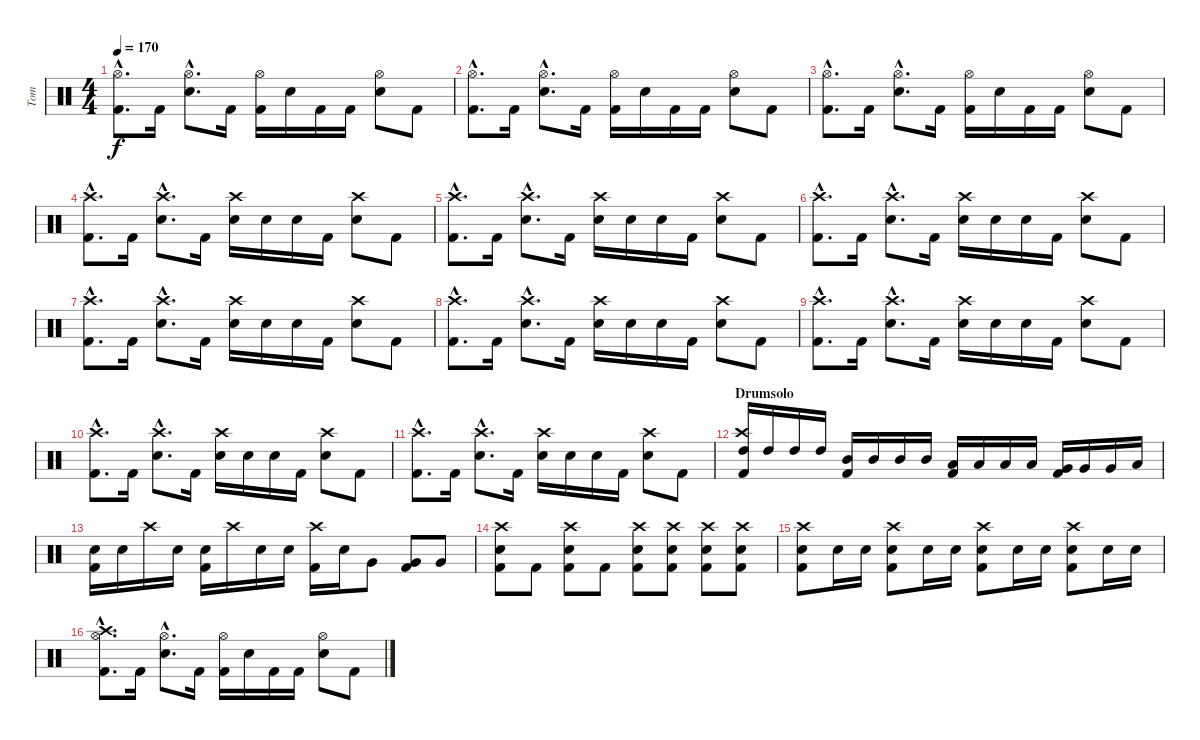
\track ("Tom" "Tom") {instrument percussion}
\staff {score}
\articulation defaults
\ts (4 4)
\tempo 170
\clef neutral
\ks c
("Hi-Hat (open)"{hac} "Kick (hit) 2"{hac}).8{d dy f} "Kick (hit) 2".16 ("Hi-Hat (open)"{hac} "Electric Snare (hit)"{hac}).8{d} "Kick (hit) 2".16 ("Hi-Hat (open)" "Kick (hit) 2").16 "Electric Snare (hit)".16 "Kick (hit) 2".16 "Kick (hit) 2".16 ("Hi-Hat (open)" "Electric Snare (hit)").8 "Kick (hit) 2".8 |
("Hi-Hat (open)"{hac} "Kick (hit) 2"{hac}).8{d} "Kick (hit) 2".16 ("Hi-Hat (open)"{hac} "Electric Snare (hit)"{hac}).8{d} "Kick (hit) 2".16 ("Hi-Hat (open)" "Kick (hit) 2").16 "Electric Snare (hit)".16 "Kick (hit) 2".16 "Kick (hit) 2".16 ("Hi-Hat (open)" "Electric Snare (hit)").8 "Kick (hit) 2".8 |
("Hi-Hat (open)"{hac} "Kick (hit) 2"{hac}).8{d} "Kick (hit) 2".16 ("Hi-Hat (open)"{hac} "Electric Snare (hit)"{hac}).8{d} "Kick (hit) 2".16 ("Hi-Hat (open)" "Kick (hit) 2").16 "Electric Snare (hit)".16 "Kick (hit) 2".16 "Kick (hit) 2".16 ("Hi-Hat (open)" "Electric Snare (hit)").8 "Kick (hit) 2".8 |
("Crash high (hit)"{hac} "Kick (hit) 2"{hac}).8{d} "Kick (hit) 2".16 ("Crash high (hit)"{hac} "Electric Snare (hit)"{hac}).8{d} "Kick (hit) 2".16 ("Crash high (hit)" "Electric Snare (hit)").16 "Electric Snare (hit)".16 "Electric Snare (hit)".16 "Kick (hit) 2".16 ("Crash high (hit)" "Electric Snare (hit)").8 "Kick (hit) 2".8 |
("Crash high (hit)"{hac} "Kick (hit) 2"{hac}).8{d} "Kick (hit) 2".16 ("Crash high (hit)"{hac} "Electric Snare (hit)"{hac}).8{d} "Kick (hit) 2".16 ("Crash high (hit)" "Electric Snare (hit)").16 "Electric Snare (hit)".16 "Electric Snare (hit)".16 "Kick (hit) 2".16 ("Crash high (hit)" "Electric Snare (hit)").8 "Kick (hit) 2".8 |
("Crash high (hit)"{hac} "Kick (hit) 2"{hac}).8{d} "Kick (hit) 2".16 ("Crash high (hit)"{hac} "Electric Snare (hit)"{hac}).8{d} "Kick (hit) 2".16 ("Crash high (hit)" "Electric Snare (hit)").16 "Electric Snare (hit)".16 "Electric Snare (hit)".16 "Kick (hit) 2".16 ("Crash high (hit)" "Electric Snare (hit)").8 "Kick (hit) 2".8 |
("Crash high (hit)"{hac} "Kick (hit) 2"{hac}).8{d} "Kick (hit) 2".16 ("Crash high (hit)"{hac} "Electric Snare (hit)"{hac}).8{d} "Kick (hit) 2".16 ("Crash high (hit)" "Electric Snare (hit)").16 "Electric Snare (hit)".16 "Electric Snare (hit)".16 "Kick (hit) 2".16 ("Crash high (hit)" "Electric Snare (hit)").8 "Kick (hit) 2".8 |
("Crash high (hit)"{hac} "Kick (hit) 2"{hac}).8{d} "Kick (hit) 2".16 ("Crash high (hit)"{hac} "Electric Snare (hit)"{hac}).8{d} "Kick (hit) 2".16 ("Crash high (hit)" "Electric Snare (hit)").16 "Electric Snare (hit)".16 "Electric Snare (hit)".16 "Kick (hit) 2".16 ("Crash high (hit)" "Electric Snare (hit)").8 "Kick (hit) 2".8 |
("Crash high (hit)"{hac} "Kick (hit) 2"{hac}).8{d} "Kick (hit) 2".16 ("Crash high (hit)"{hac} "Electric Snare (hit)"{hac}).8{d} "Kick (hit) 2".16 ("Crash high (hit)" "Electric Snare (hit)").16 "Electric Snare (hit)".16 "Electric Snare (hit)".16 "Kick (hit) 2".16 ("Crash high (hit)" "Electric Snare (hit)").8 "Kick (hit) 2".8 |
("Crash high (hit)"{hac} "Kick (hit) 2"{hac}).8{d} "Kick (hit) 2".16 ("Crash high (hit)"{hac} "Electric Snare (hit)"{hac}).8{d} "Kick (hit) 2".16 ("Crash high (hit)" "Electric Snare (hit)").16 "Electric Snare (hit)".16 "Electric Snare (hit)".16 "Kick (hit) 2".16 ("Crash high (hit)" "Electric Snare (hit)").8 "Kick (hit) 2".8 |
("Crash high (hit)"{hac} "Kick (hit) 2"{hac}).8{d} "Kick (hit) 2".16 ("Crash high (hit)"{hac} "Electric Snare (hit)"{hac}).8{d} "Kick (hit) 2".16 ("Crash high (hit)" "Electric Snare (hit)").16 "Electric Snare (hit)".16 "Electric Snare (hit)".16 "Kick (hit) 2".16 ("Crash high (hit)" "Electric Snare (hit)").8 "Kick (hit) 2".8 |
\section ("" "Drumsolo")
("High Tom (hit)" "Kick (hit) 2" "Crash high (hit)").16 "High Tom (hit)".16 "High Tom (hit)".16 "High Tom (hit)".16 ("Mid Tom (hit)" "Kick (hit) 2").16 "Mid Tom (hit)".16 "Mid Tom (hit)".16 "Mid Tom (hit)".16 ("Low Tom (hit)" "Kick (hit) 2").16 "Low Tom (hit)".16 "Low Tom (hit)".16 "Low Tom (hit)".16 ("Very Low Tom (hit)" "Kick (hit) 2").16 "Very Low Tom (hit)".16 "Very Low Tom (hit)".16 "Low Tom (hit)".16 |
("Snare (hit) 2" "Kick (hit) 2").16 "Snare (hit) 2".16 "Crash high (hit)".16 "Snare (hit) 2".16 ("Snare (hit) 2" "Kick (hit) 2").16 "Crash high (hit)".16 "Snare (hit) 2".16 "Snare (hit) 2".16 ("Crash high (hit)" "Kick (hit) 2").16 "Electric Snare (hit)".16 "Very Low Tom (hit)".8 ("Very Low Tom (hit)" "Kick (hit) 2").8 "Very Low Tom (hit)".8 |
("Crash high (hit)" "Electric Snare (hit)" "Kick (hit) 2").8 "Kick (hit) 2".8 ("Crash high (hit)" "Electric Snare (hit)" "Kick (hit) 2").8 "Kick (hit) 2".8 ("Crash high (hit)" "Electric Snare (hit)" "Kick (hit) 2").8 ("Crash high (hit)" "Electric Snare (hit)" "Kick (hit) 2").8 ("Crash high (hit)" "Electric Snare (hit)" "Kick (hit) 2").8 ("Crash high (hit)" "Electric Snare (hit)" "Kick (hit) 2").8 |
("Kick (hit) 2" "Electric Snare (hit)" "Crash high (hit)").8 "Electric Snare (hit)".16 "Electric Snare (hit)".16 ("Kick (hit) 2" "Electric Snare (hit)" "Crash high (hit)").8 "Electric Snare (hit)".16 "Electric Snare (hit)".16 ("Kick (hit) 2" "Electric Snare (hit)" "Crash high (hit)").8 "Electric Snare (hit)".16 "Electric Snare (hit)".16 ("Kick (hit) 2" "Electric Snare (hit)" "Crash high (hit)").8 "Electric Snare (hit)".16 "Electric Snare (hit)".16 |
("Hi-Hat (open)"{hac} "Kick (hit) 2"{hac} "Crash high (hit)"{hac}).8{d} "Kick (hit) 2".16 ("Hi-Hat (open)"{hac} "Electric Snare (hit)"{hac}).8{d} "Kick (hit) 2".16 ("Hi-Hat (open)" "Kick (hit) 2").16 "Electric Snare (hit)".16 "Kick (hit) 2".16 "Kick (hit) 2".16 ("Hi-Hat (open)" "Electric Snare (hit)").8 "Kick (hit) 2".8
